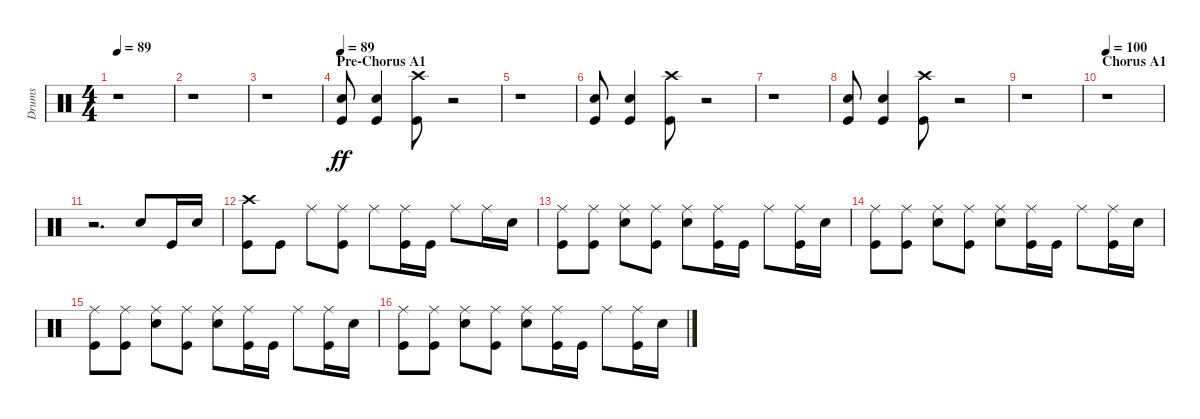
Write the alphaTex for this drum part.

\track ("Drums" "Drums") {instrument percussion}
\staff {score}
\articulation defaults
\ts (4 4)
\tempo 89
\clef neutral
\ks c
r.1{dy ff} |
r.1 |
r.1 |
\section ("" "Pre-Chorus A1")
\tempo 89
("Electric Snare (hit)" "Kick (hit)").8 ("Electric Snare (hit)" "Kick (hit)").4 ("Crash high (hit)" "Kick (hit)").8 r.2 |
r.1 |
("Electric Snare (hit)" "Kick (hit)").8 ("Electric Snare (hit)" "Kick (hit)").4 ("Crash high (hit)" "Kick (hit)").8 r.2 |
r.1 |
("Electric Snare (hit)" "Kick (hit)").8 ("Electric Snare (hit)" "Kick (hit)").4 ("Crash high (hit)" "Kick (hit)").8 r.2 |
r.1 |
\section ("" "Chorus A1")
\tempo 100
r.1 |
r.2{d} "Electric Snare (hit)".8 "Kick (hit)".16 "Electric Snare (hit)".16 |
("Crash high (hit)" "Kick (hit)").8 "Kick (hit)".8 "Ride (middle)".8 ("Ride (middle)" "Kick (hit)").8 "Ride (middle)".8 ("Ride (middle)" "Kick (hit)").16 "Kick (hit)".16 "Ride (middle)".8 "Ride (middle)".16 "Electric Snare (hit)".16 |
("Ride (middle)" "Kick (hit)").8 ("Ride (middle)" "Kick (hit)").8 ("Ride (middle)" "Electric Snare (hit)").8 ("Ride (middle)" "Kick (hit)").8 ("Ride (middle)" "Electric Snare (hit)").8 ("Ride (middle)" "Kick (hit)").16 "Kick (hit)".16 "Ride (middle)".8 ("Ride (middle)" "Kick (hit)").16 "Electric Snare (hit)".16 |
("Ride (middle)" "Kick (hit)").8 ("Ride (middle)" "Kick (hit)").8 ("Ride (middle)" "Electric Snare (hit)").8 ("Ride (middle)" "Kick (hit)").8 ("Ride (middle)" "Electric Snare (hit)").8 ("Ride (middle)" "Kick (hit)").16 "Kick (hit)".16 "Ride (middle)".8 ("Ride (middle)" "Kick (hit)").16 "Electric Snare (hit)".16 |
("Ride (middle)" "Kick (hit)").8 ("Ride (middle)" "Kick (hit)").8 ("Ride (middle)" "Electric Snare (hit)").8 ("Ride (middle)" "Kick (hit)").8 ("Ride (middle)" "Electric Snare (hit)").8 ("Ride (middle)" "Kick (hit)").16 "Kick (hit)".16 "Ride (middle)".8 ("Ride (middle)" "Kick (hit)").16 "Electric Snare (hit)".16 |
("Ride (middle)" "Kick (hit)").8 ("Ride (middle)" "Kick (hit)").8 ("Ride (middle)" "Electric Snare (hit)").8 ("Ride (middle)" "Kick (hit)").8 ("Ride (middle)" "Electric Snare (hit)").8 ("Ride (middle)" "Kick (hit)").16 "Kick (hit)".16 "Ride (middle)".8 ("Ride (middle)" "Kick (hit)").16 "Electric Snare (hit)".16
